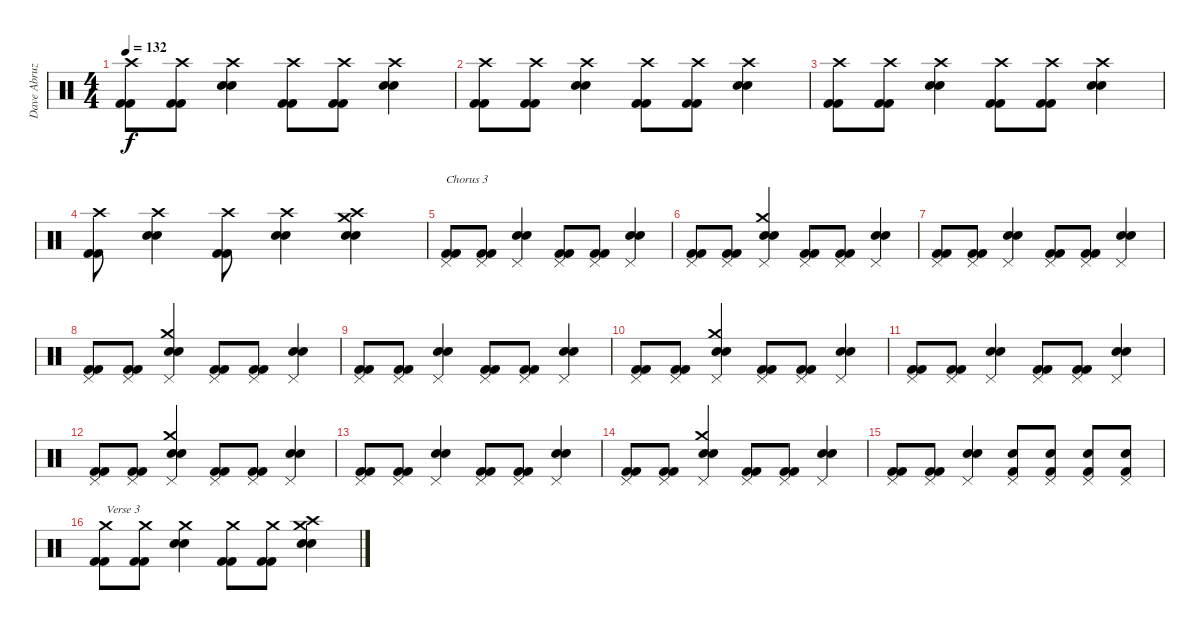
\track ("Dave Abruzzesse" "Dave Abruz") {instrument percussion}
\staff {score}
\articulation defaults
\ts (4 4)
\tempo 132
\clef neutral
\ks c
("Crash high (hit)" "Kick (hit) 2" "Kick (hit) 2").8{dy f} ("Crash high (hit)" "Kick (hit) 2" "Kick (hit) 2").8 ("Crash high (hit)" "Snare (hit) 2" "Snare (hit) 2").4 ("Crash high (hit)" "Kick (hit) 2" "Kick (hit) 2").8 ("Crash high (hit)" "Kick (hit) 2" "Kick (hit) 2").8 ("Crash high (hit)" "Snare (hit) 2" "Snare (hit) 2").4 |
("Crash high (hit)" "Kick (hit) 2" "Kick (hit) 2").8 ("Crash high (hit)" "Kick (hit) 2" "Kick (hit) 2").8 ("Crash high (hit)" "Snare (hit) 2" "Snare (hit) 2").4 ("Crash high (hit)" "Kick (hit) 2" "Kick (hit) 2").8 ("Crash high (hit)" "Kick (hit) 2" "Kick (hit) 2").8 ("Crash high (hit)" "Snare (hit) 2" "Snare (hit) 2").4 |
("Crash high (hit)" "Kick (hit) 2" "Kick (hit) 2").8 ("Crash high (hit)" "Kick (hit) 2" "Kick (hit) 2").8 ("Crash high (hit)" "Snare (hit) 2" "Snare (hit) 2").4 ("Crash high (hit)" "Kick (hit) 2" "Kick (hit) 2").8 ("Crash high (hit)" "Kick (hit) 2" "Kick (hit) 2").8 ("Crash high (hit)" "Snare (hit) 2" "Snare (hit) 2").4 |
("Crash high (hit)" "Kick (hit) 2" "Kick (hit) 2").8 ("Crash high (hit)" "Snare (hit) 2" "Snare (hit) 2").4 ("Crash high (hit)" "Kick (hit) 2" "Kick (hit) 2").8 ("Crash high (hit)" "Snare (hit) 2" "Snare (hit) 2").4 ("Crash high (hit)" "Crash medium (hit)" "Snare (hit) 2" "Snare (hit) 2").4 |
("Pedal Hi-Hat (hit)" "Kick (hit) 2" "Kick (hit) 2").8{txt "Chorus 3"} ("Pedal Hi-Hat (hit)" "Kick (hit) 2" "Kick (hit) 2").8 ("Pedal Hi-Hat (hit)" "Snare (hit) 2" "Snare (hit) 2").4 ("Pedal Hi-Hat (hit)" "Kick (hit) 2" "Kick (hit) 2").8 ("Pedal Hi-Hat (hit)" "Kick (hit) 2" "Kick (hit) 2").8 ("Pedal Hi-Hat (hit)" "Snare (hit) 2" "Snare (hit) 2").4 |
("Pedal Hi-Hat (hit)" "Kick (hit) 2" "Kick (hit) 2").8 ("Pedal Hi-Hat (hit)" "Kick (hit) 2" "Kick (hit) 2").8 ("Crash medium (hit)" "Pedal Hi-Hat (hit)" "Snare (hit) 2" "Snare (hit) 2").4 ("Pedal Hi-Hat (hit)" "Kick (hit) 2" "Kick (hit) 2").8 ("Pedal Hi-Hat (hit)" "Kick (hit) 2" "Kick (hit) 2").8 ("Pedal Hi-Hat (hit)" "Snare (hit) 2" "Snare (hit) 2").4 |
("Pedal Hi-Hat (hit)" "Kick (hit) 2" "Kick (hit) 2").8 ("Pedal Hi-Hat (hit)" "Kick (hit) 2" "Kick (hit) 2").8 ("Pedal Hi-Hat (hit)" "Snare (hit) 2" "Snare (hit) 2").4 ("Pedal Hi-Hat (hit)" "Kick (hit) 2" "Kick (hit) 2").8 ("Pedal Hi-Hat (hit)" "Kick (hit) 2" "Kick (hit) 2").8 ("Pedal Hi-Hat (hit)" "Snare (hit) 2" "Snare (hit) 2").4 |
("Pedal Hi-Hat (hit)" "Kick (hit) 2" "Kick (hit) 2").8 ("Pedal Hi-Hat (hit)" "Kick (hit) 2" "Kick (hit) 2").8 ("Crash medium (hit)" "Pedal Hi-Hat (hit)" "Snare (hit) 2" "Snare (hit) 2").4 ("Pedal Hi-Hat (hit)" "Kick (hit) 2" "Kick (hit) 2").8 ("Pedal Hi-Hat (hit)" "Kick (hit) 2" "Kick (hit) 2").8 ("Pedal Hi-Hat (hit)" "Snare (hit) 2" "Snare (hit) 2").4 |
("Pedal Hi-Hat (hit)" "Kick (hit) 2" "Kick (hit) 2").8 ("Pedal Hi-Hat (hit)" "Kick (hit) 2" "Kick (hit) 2").8 ("Pedal Hi-Hat (hit)" "Snare (hit) 2" "Snare (hit) 2").4 ("Pedal Hi-Hat (hit)" "Kick (hit) 2" "Kick (hit) 2").8 ("Pedal Hi-Hat (hit)" "Kick (hit) 2" "Kick (hit) 2").8 ("Pedal Hi-Hat (hit)" "Snare (hit) 2" "Snare (hit) 2").4 |
("Pedal Hi-Hat (hit)" "Kick (hit) 2" "Kick (hit) 2").8 ("Pedal Hi-Hat (hit)" "Kick (hit) 2" "Kick (hit) 2").8 ("Crash medium (hit)" "Pedal Hi-Hat (hit)" "Snare (hit) 2" "Snare (hit) 2").4 ("Pedal Hi-Hat (hit)" "Kick (hit) 2" "Kick (hit) 2").8 ("Pedal Hi-Hat (hit)" "Kick (hit) 2" "Kick (hit) 2").8 ("Pedal Hi-Hat (hit)" "Snare (hit) 2" "Snare (hit) 2").4 |
("Pedal Hi-Hat (hit)" "Kick (hit) 2" "Kick (hit) 2").8 ("Pedal Hi-Hat (hit)" "Kick (hit) 2" "Kick (hit) 2").8 ("Pedal Hi-Hat (hit)" "Snare (hit) 2" "Snare (hit) 2").4 ("Pedal Hi-Hat (hit)" "Kick (hit) 2" "Kick (hit) 2").8 ("Pedal Hi-Hat (hit)" "Kick (hit) 2" "Kick (hit) 2").8 ("Pedal Hi-Hat (hit)" "Snare (hit) 2" "Snare (hit) 2").4 |
("Pedal Hi-Hat (hit)" "Kick (hit) 2" "Kick (hit) 2").8 ("Pedal Hi-Hat (hit)" "Kick (hit) 2" "Kick (hit) 2").8 ("Crash medium (hit)" "Pedal Hi-Hat (hit)" "Snare (hit) 2" "Snare (hit) 2").4 ("Pedal Hi-Hat (hit)" "Kick (hit) 2" "Kick (hit) 2").8 ("Pedal Hi-Hat (hit)" "Kick (hit) 2" "Kick (hit) 2").8 ("Pedal Hi-Hat (hit)" "Snare (hit) 2" "Snare (hit) 2").4 |
("Pedal Hi-Hat (hit)" "Kick (hit) 2" "Kick (hit) 2").8 ("Pedal Hi-Hat (hit)" "Kick (hit) 2" "Kick (hit) 2").8 ("Pedal Hi-Hat (hit)" "Snare (hit) 2" "Snare (hit) 2").4 ("Pedal Hi-Hat (hit)" "Kick (hit) 2" "Kick (hit) 2").8 ("Pedal Hi-Hat (hit)" "Kick (hit) 2" "Kick (hit) 2").8 ("Pedal Hi-Hat (hit)" "Snare (hit) 2" "Snare (hit) 2").4 |
("Pedal Hi-Hat (hit)" "Kick (hit) 2" "Kick (hit) 2").8 ("Pedal Hi-Hat (hit)" "Kick (hit) 2" "Kick (hit) 2").8 ("Crash medium (hit)" "Pedal Hi-Hat (hit)" "Snare (hit) 2" "Snare (hit) 2").4 ("Pedal Hi-Hat (hit)" "Kick (hit) 2" "Kick (hit) 2").8 ("Pedal Hi-Hat (hit)" "Kick (hit) 2" "Kick (hit) 2").8 ("Pedal Hi-Hat (hit)" "Snare (hit) 2" "Snare (hit) 2").4 |
("Pedal Hi-Hat (hit)" "Kick (hit) 2" "Kick (hit) 2").8 ("Pedal Hi-Hat (hit)" "Kick (hit) 2" "Kick (hit) 2").8 ("Pedal Hi-Hat (hit)" "Snare (hit) 2" "Snare (hit) 2").4 ("Pedal Hi-Hat (hit)" "Snare (hit) 2" "Kick (hit) 2").8 ("Pedal Hi-Hat (hit)" "Snare (hit) 2" "Kick (hit) 2").8 ("Pedal Hi-Hat (hit)" "Snare (hit) 2" "Kick (hit) 2").8 ("Pedal Hi-Hat (hit)" "Snare (hit) 2" "Kick (hit) 2").8 |
("Crash medium (hit)" "Kick (hit) 2" "Kick (hit) 2").8{txt "Verse 3"} ("Crash medium (hit)" "Kick (hit) 2" "Kick (hit) 2").8 ("Crash medium (hit)" "Snare (hit) 2" "Snare (hit) 2").4 ("Crash medium (hit)" "Kick (hit) 2" "Kick (hit) 2").8 ("Crash medium (hit)" "Kick (hit) 2" "Kick (hit) 2").8 ("Crash high (hit)" "Crash medium (hit)" "Snare (hit) 2" "Snare (hit) 2").4
